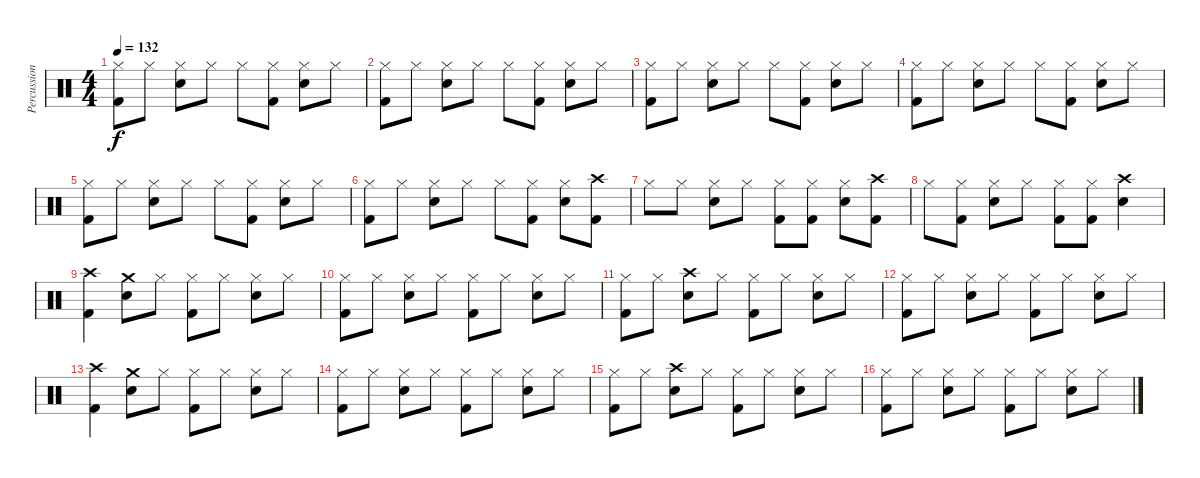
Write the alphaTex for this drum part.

\track ("Percussion" "Percussion") {instrument percussion}
\staff {score}
\articulation defaults
\ts (4 4)
\tempo 132
\clef neutral
\ks c
("Hi-Hat (closed)" "Kick (hit) 2").8{dy f} "Hi-Hat (closed)".8 ("Hi-Hat (closed)" "Snare (hit) 2").8 "Hi-Hat (closed)".8 "Hi-Hat (closed)".8 ("Hi-Hat (closed)" "Kick (hit) 2").8 ("Hi-Hat (closed)" "Snare (hit) 2").8 "Hi-Hat (closed)".8 |
("Hi-Hat (closed)" "Kick (hit) 2").8 "Hi-Hat (closed)".8 ("Hi-Hat (closed)" "Snare (hit) 2").8 "Hi-Hat (closed)".8 "Hi-Hat (closed)".8 ("Hi-Hat (closed)" "Kick (hit) 2").8 ("Hi-Hat (closed)" "Snare (hit) 2").8 "Hi-Hat (closed)".8 |
("Hi-Hat (closed)" "Kick (hit) 2").8 "Hi-Hat (closed)".8 ("Hi-Hat (closed)" "Snare (hit) 2").8 "Hi-Hat (closed)".8 "Hi-Hat (closed)".8 ("Hi-Hat (closed)" "Kick (hit) 2").8 ("Hi-Hat (closed)" "Snare (hit) 2").8 "Hi-Hat (closed)".8 |
("Hi-Hat (closed)" "Kick (hit) 2").8 "Hi-Hat (closed)".8 ("Hi-Hat (closed)" "Snare (hit) 2").8 "Hi-Hat (closed)".8 "Hi-Hat (closed)".8 ("Hi-Hat (closed)" "Kick (hit) 2").8 ("Hi-Hat (closed)" "Snare (hit) 2").8 "Hi-Hat (closed)".8 |
("Hi-Hat (closed)" "Kick (hit) 2").8 "Hi-Hat (closed)".8 ("Hi-Hat (closed)" "Snare (hit) 2").8 "Hi-Hat (closed)".8 "Hi-Hat (closed)".8 ("Hi-Hat (closed)" "Kick (hit) 2").8 ("Hi-Hat (closed)" "Snare (hit) 2").8 "Hi-Hat (closed)".8 |
("Hi-Hat (closed)" "Kick (hit) 2").8 "Hi-Hat (closed)".8 ("Hi-Hat (closed)" "Snare (hit) 2").8 "Hi-Hat (closed)".8 "Hi-Hat (closed)".8 ("Hi-Hat (closed)" "Kick (hit) 2").8 ("Hi-Hat (closed)" "Snare (hit) 2").8 ("Crash high (hit)" "Kick (hit) 2").8 |
"Hi-Hat (closed)".8 "Hi-Hat (closed)".8 ("Hi-Hat (closed)" "Snare (hit) 2").8 "Hi-Hat (closed)".8 ("Hi-Hat (closed)" "Kick (hit) 2").8 ("Hi-Hat (closed)" "Kick (hit) 2").8 ("Hi-Hat (closed)" "Snare (hit) 2").8 ("Crash high (hit)" "Kick (hit) 2").8 |
"Hi-Hat (closed)".8 ("Hi-Hat (closed)" "Kick (hit) 2").8 ("Hi-Hat (closed)" "Snare (hit) 2").8 "Hi-Hat (closed)".8 ("Hi-Hat (closed)" "Kick (hit) 2").8 ("Hi-Hat (closed)" "Kick (hit) 2").8 ("Crash high (hit)" "Snare (hit) 2").4 |
("Crash high (hit)" "Kick (hit) 2").4 ("Crash medium (hit)" "Snare (hit) 2").8 "Hi-Hat (closed)".8 ("Hi-Hat (closed)" "Kick (hit) 2").8 "Hi-Hat (closed)".8 ("Hi-Hat (closed)" "Snare (hit) 2").8 "Hi-Hat (closed)".8 |
("Hi-Hat (closed)" "Kick (hit) 2").8 "Hi-Hat (closed)".8 ("Hi-Hat (closed)" "Snare (hit) 2").8 "Hi-Hat (closed)".8 ("Hi-Hat (closed)" "Kick (hit) 2").8 "Hi-Hat (closed)".8 ("Hi-Hat (closed)" "Snare (hit) 2").8 "Hi-Hat (closed)".8 |
("Hi-Hat (closed)" "Kick (hit) 2").8 "Hi-Hat (closed)".8 ("Crash high (hit)" "Snare (hit) 2").8 "Hi-Hat (closed)".8 ("Hi-Hat (closed)" "Kick (hit) 2").8 "Hi-Hat (closed)".8 ("Hi-Hat (closed)" "Snare (hit) 2").8 "Hi-Hat (closed)".8 |
("Hi-Hat (closed)" "Kick (hit) 2").8 "Hi-Hat (closed)".8 ("Hi-Hat (closed)" "Snare (hit) 2").8 "Hi-Hat (closed)".8 ("Hi-Hat (closed)" "Kick (hit) 2").8 "Hi-Hat (closed)".8 ("Hi-Hat (closed)" "Snare (hit) 2").8 "Hi-Hat (closed)".8 |
("Crash high (hit)" "Kick (hit) 2").4 ("Crash medium (hit)" "Snare (hit) 2").8 "Hi-Hat (closed)".8 ("Hi-Hat (closed)" "Kick (hit) 2").8 "Hi-Hat (closed)".8 ("Hi-Hat (closed)" "Snare (hit) 2").8 "Hi-Hat (closed)".8 |
("Hi-Hat (closed)" "Kick (hit) 2").8 "Hi-Hat (closed)".8 ("Hi-Hat (closed)" "Snare (hit) 2").8 "Hi-Hat (closed)".8 ("Hi-Hat (closed)" "Kick (hit) 2").8 "Hi-Hat (closed)".8 ("Hi-Hat (closed)" "Snare (hit) 2").8 "Hi-Hat (closed)".8 |
("Hi-Hat (closed)" "Kick (hit) 2").8 "Hi-Hat (closed)".8 ("Crash high (hit)" "Snare (hit) 2").8 "Hi-Hat (closed)".8 ("Hi-Hat (closed)" "Kick (hit) 2").8 "Hi-Hat (closed)".8 ("Hi-Hat (closed)" "Snare (hit) 2").8 "Hi-Hat (closed)".8 |
("Hi-Hat (closed)" "Kick (hit) 2").8 "Hi-Hat (closed)".8 ("Hi-Hat (closed)" "Snare (hit) 2").8 "Hi-Hat (closed)".8 ("Hi-Hat (closed)" "Kick (hit) 2").8 "Hi-Hat (closed)".8 ("Hi-Hat (closed)" "Snare (hit) 2").8 "Hi-Hat (closed)".8
